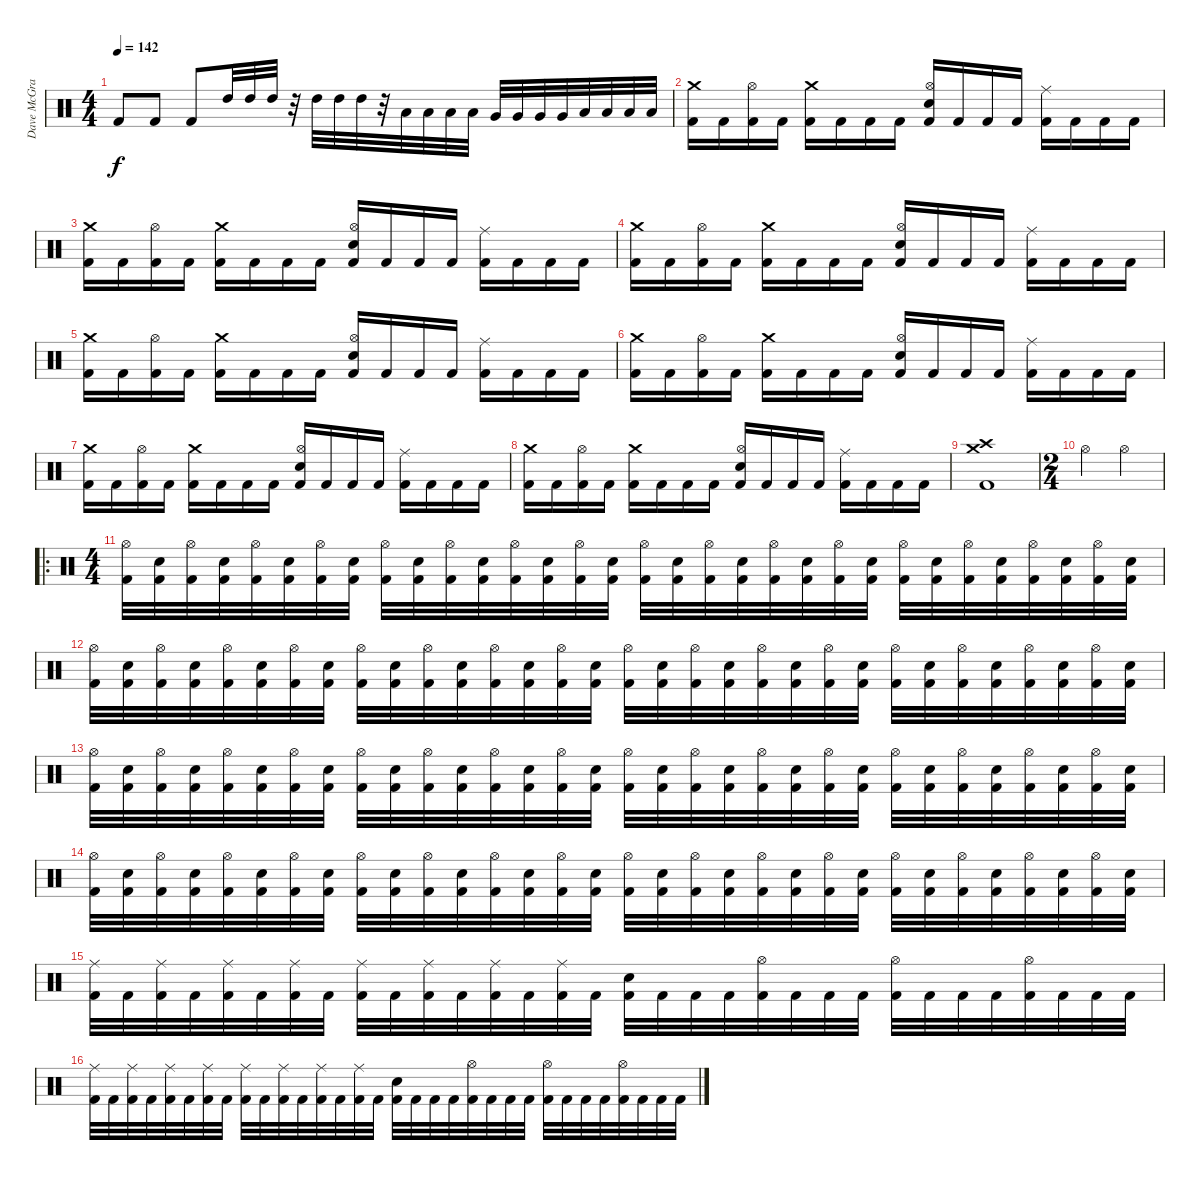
\track ("Dave McGraw" "Dave McGra") {instrument percussion}
\staff {score}
\articulation defaults
\ts (4 4)
\tempo 142
\clef neutral
\ks c "Kick (hit) 2".8{dy f} "Kick (hit) 2".8 "Kick (hit) 2".8 "High Tom (hit)".32 "High Tom (hit)".32 "High Tom (hit)".32
r.32 "High Tom (hit)".32 "High Tom (hit)".32 "High Tom (hit)".32 r.32 "Low Tom (hit)".32 "Low Tom (hit)".32 "Low Tom (hit)".32 "Low Tom (hit)".32 "Very Low Tom (hit)".32 "Very Low Tom (hit)".32 "Very Low Tom (hit)".32 "Very Low Tom (hit)".32 "Low Floor Tom (hit)".32 "Low Floor Tom (hit)".32 "Low Floor Tom (hit)".32 "Low Floor Tom (hit)".32 |
("Crash medium (hit)" "Kick (hit) 2").16 "Kick (hit) 2".16 ("Hi-Hat (open)" "Kick (hit) 2").16 "Kick (hit) 2".16 ("Crash medium (hit)" "Kick (hit) 2").16 "Kick (hit) 2".16 "Kick (hit) 2".16 "Kick (hit) 2".16 ("Hi-Hat (open)" "Electric Snare (hit)" "Kick (hit) 2").16 "Kick (hit) 2".16 "Kick (hit) 2".16 "Kick (hit) 2".16 ("Ride (middle)" "Kick (hit) 2").16 "Kick (hit) 2".16 "Kick (hit) 2".16 "Kick (hit) 2".16 |
("Crash medium (hit)" "Kick (hit) 2").16 "Kick (hit) 2".16 ("Hi-Hat (open)" "Kick (hit) 2").16 "Kick (hit) 2".16 ("Crash medium (hit)" "Kick (hit) 2").16 "Kick (hit) 2".16 "Kick (hit) 2".16 "Kick (hit) 2".16 ("Hi-Hat (open)" "Electric Snare (hit)" "Kick (hit) 2").16 "Kick (hit) 2".16 "Kick (hit) 2".16 "Kick (hit) 2".16 ("Ride (middle)" "Kick (hit) 2").16 "Kick (hit) 2".16 "Kick (hit) 2".16 "Kick (hit) 2".16 |
("Crash medium (hit)" "Kick (hit) 2").16 "Kick (hit) 2".16 ("Hi-Hat (open)" "Kick (hit) 2").16 "Kick (hit) 2".16 ("Crash medium (hit)" "Kick (hit) 2").16 "Kick (hit) 2".16 "Kick (hit) 2".16 "Kick (hit) 2".16 ("Hi-Hat (open)" "Electric Snare (hit)" "Kick (hit) 2").16 "Kick (hit) 2".16 "Kick (hit) 2".16 "Kick (hit) 2".16 ("Ride (middle)" "Kick (hit) 2").16 "Kick (hit) 2".16 "Kick (hit) 2".16 "Kick (hit) 2".16 |
("Crash medium (hit)" "Kick (hit) 2").16 "Kick (hit) 2".16 ("Hi-Hat (open)" "Kick (hit) 2").16 "Kick (hit) 2".16 ("Crash medium (hit)" "Kick (hit) 2").16 "Kick (hit) 2".16 "Kick (hit) 2".16 "Kick (hit) 2".16 ("Hi-Hat (open)" "Electric Snare (hit)" "Kick (hit) 2").16 "Kick (hit) 2".16 "Kick (hit) 2".16 "Kick (hit) 2".16 ("Ride (middle)" "Kick (hit) 2").16 "Kick (hit) 2".16 "Kick (hit) 2".16 "Kick (hit) 2".16 |
("Crash medium (hit)" "Kick (hit) 2").16 "Kick (hit) 2".16 ("Hi-Hat (open)" "Kick (hit) 2").16 "Kick (hit) 2".16 ("Crash medium (hit)" "Kick (hit) 2").16 "Kick (hit) 2".16 "Kick (hit) 2".16 "Kick (hit) 2".16 ("Hi-Hat (open)" "Electric Snare (hit)" "Kick (hit) 2").16 "Kick (hit) 2".16 "Kick (hit) 2".16 "Kick (hit) 2".16 ("Ride (middle)" "Kick (hit) 2").16 "Kick (hit) 2".16 "Kick (hit) 2".16 "Kick (hit) 2".16 |
("Crash medium (hit)" "Kick (hit) 2").16 "Kick (hit) 2".16 ("Hi-Hat (open)" "Kick (hit) 2").16 "Kick (hit) 2".16 ("Crash medium (hit)" "Kick (hit) 2").16 "Kick (hit) 2".16 "Kick (hit) 2".16 "Kick (hit) 2".16 ("Hi-Hat (open)" "Electric Snare (hit)" "Kick (hit) 2").16 "Kick (hit) 2".16 "Kick (hit) 2".16 "Kick (hit) 2".16 ("Ride (middle)" "Kick (hit) 2").16 "Kick (hit) 2".16 "Kick (hit) 2".16 "Kick (hit) 2".16 |
("Crash medium (hit)" "Kick (hit) 2").16 "Kick (hit) 2".16 ("Hi-Hat (open)" "Kick (hit) 2").16 "Kick (hit) 2".16 ("Crash medium (hit)" "Kick (hit) 2").16 "Kick (hit) 2".16 "Kick (hit) 2".16 "Kick (hit) 2".16 ("Hi-Hat (open)" "Electric Snare (hit)" "Kick (hit) 2").16 "Kick (hit) 2".16 "Kick (hit) 2".16 "Kick (hit) 2".16 ("Ride (middle)" "Kick (hit) 2").16 "Kick (hit) 2".16 "Kick (hit) 2".16 "Kick (hit) 2".16 |
("Crash medium (hit)" "Crash high (hit)" "Kick (hit) 2").1 |
\ts (2 4)
"Hi-Hat (open)".4 "Hi-Hat (open)".4 |
\ro
\ts (4 4)
("Hi-Hat (open)" "Kick (hit) 2").32 ("Electric Snare (hit)" "Kick (hit) 2").32 ("Hi-Hat (open)" "Kick (hit) 2").32 ("Electric Snare (hit)" "Kick (hit) 2").32 ("Hi-Hat (open)" "Kick (hit) 2").32 ("Electric Snare (hit)" "Kick (hit) 2").32 ("Hi-Hat (open)" "Kick (hit) 2").32 ("Electric Snare (hit)" "Kick (hit) 2").32 ("Hi-Hat (open)" "Kick (hit) 2").32 ("Electric Snare (hit)" "Kick (hit) 2").32 ("Hi-Hat (open)" "Kick (hit) 2").32 ("Electric Snare (hit)" "Kick (hit) 2").32 ("Hi-Hat (open)" "Kick (hit) 2").32 ("Electric Snare (hit)" "Kick (hit) 2").32 ("Hi-Hat (open)" "Kick (hit) 2").32 ("Electric Snare (hit)" "Kick (hit) 2").32 ("Hi-Hat (open)" "Kick (hit) 2").32 ("Electric Snare (hit)" "Kick (hit) 2").32 ("Hi-Hat (open)" "Kick (hit) 2").32 ("Electric Snare (hit)" "Kick (hit) 2").32 ("Hi-Hat (open)" "Kick (hit) 2").32 ("Electric Snare (hit)" "Kick (hit) 2").32 ("Hi-Hat (open)" "Kick (hit) 2").32 ("Electric Snare (hit)" "Kick (hit) 2").32 ("Hi-Hat (open)" "Kick (hit) 2").32 ("Electric Snare (hit)" "Kick (hit) 2").32 ("Hi-Hat (open)" "Kick (hit) 2").32 ("Electric Snare (hit)" "Kick (hit) 2").32 ("Hi-Hat (open)" "Kick (hit) 2").32 ("Electric Snare (hit)" "Kick (hit) 2").32 ("Hi-Hat (open)" "Kick (hit) 2").32 ("Electric Snare (hit)" "Kick (hit) 2").32 |
("Hi-Hat (open)" "Kick (hit) 2").32 ("Electric Snare (hit)" "Kick (hit) 2").32 ("Hi-Hat (open)" "Kick (hit) 2").32 ("Electric Snare (hit)" "Kick (hit) 2").32 ("Hi-Hat (open)" "Kick (hit) 2").32 ("Electric Snare (hit)" "Kick (hit) 2").32 ("Hi-Hat (open)" "Kick (hit) 2").32 ("Electric Snare (hit)" "Kick (hit) 2").32 ("Hi-Hat (open)" "Kick (hit) 2").32 ("Electric Snare (hit)" "Kick (hit) 2").32 ("Hi-Hat (open)" "Kick (hit) 2").32 ("Electric Snare (hit)" "Kick (hit) 2").32 ("Hi-Hat (open)" "Kick (hit) 2").32 ("Electric Snare (hit)" "Kick (hit) 2").32 ("Hi-Hat (open)" "Kick (hit) 2").32 ("Electric Snare (hit)" "Kick (hit) 2").32 ("Hi-Hat (open)" "Kick (hit) 2").32 ("Electric Snare (hit)" "Kick (hit) 2").32 ("Hi-Hat (open)" "Kick (hit) 2").32 ("Electric Snare (hit)" "Kick (hit) 2").32 ("Hi-Hat (open)" "Kick (hit) 2").32 ("Electric Snare (hit)" "Kick (hit) 2").32 ("Hi-Hat (open)" "Kick (hit) 2").32 ("Electric Snare (hit)" "Kick (hit) 2").32 ("Hi-Hat (open)" "Kick (hit) 2").32 ("Electric Snare (hit)" "Kick (hit) 2").32 ("Hi-Hat (open)" "Kick (hit) 2").32 ("Electric Snare (hit)" "Kick (hit) 2").32 ("Hi-Hat (open)" "Kick (hit) 2").32 ("Electric Snare (hit)" "Kick (hit) 2").32 ("Hi-Hat (open)" "Kick (hit) 2").32 ("Electric Snare (hit)" "Kick (hit) 2").32 |
("Hi-Hat (open)" "Kick (hit) 2").32 ("Electric Snare (hit)" "Kick (hit) 2").32 ("Hi-Hat (open)" "Kick (hit) 2").32 ("Electric Snare (hit)" "Kick (hit) 2").32 ("Hi-Hat (open)" "Kick (hit) 2").32 ("Electric Snare (hit)" "Kick (hit) 2").32 ("Hi-Hat (open)" "Kick (hit) 2").32 ("Electric Snare (hit)" "Kick (hit) 2").32 ("Hi-Hat (open)" "Kick (hit) 2").32 ("Electric Snare (hit)" "Kick (hit) 2").32 ("Hi-Hat (open)" "Kick (hit) 2").32 ("Electric Snare (hit)" "Kick (hit) 2").32 ("Hi-Hat (open)" "Kick (hit) 2").32 ("Electric Snare (hit)" "Kick (hit) 2").32 ("Hi-Hat (open)" "Kick (hit) 2").32 ("Electric Snare (hit)" "Kick (hit) 2").32 ("Hi-Hat (open)" "Kick (hit) 2").32 ("Electric Snare (hit)" "Kick (hit) 2").32 ("Hi-Hat (open)" "Kick (hit) 2").32 ("Electric Snare (hit)" "Kick (hit) 2").32 ("Hi-Hat (open)" "Kick (hit) 2").32 ("Electric Snare (hit)" "Kick (hit) 2").32 ("Hi-Hat (open)" "Kick (hit) 2").32 ("Electric Snare (hit)" "Kick (hit) 2").32 ("Hi-Hat (open)" "Kick (hit) 2").32 ("Electric Snare (hit)" "Kick (hit) 2").32 ("Hi-Hat (open)" "Kick (hit) 2").32 ("Electric Snare (hit)" "Kick (hit) 2").32 ("Hi-Hat (open)" "Kick (hit) 2").32 ("Electric Snare (hit)" "Kick (hit) 2").32 ("Hi-Hat (open)" "Kick (hit) 2").32 ("Electric Snare (hit)" "Kick (hit) 2").32 |
("Hi-Hat (open)" "Kick (hit) 2").32 ("Electric Snare (hit)" "Kick (hit) 2").32 ("Hi-Hat (open)" "Kick (hit) 2").32 ("Electric Snare (hit)" "Kick (hit) 2").32 ("Hi-Hat (open)" "Kick (hit) 2").32 ("Electric Snare (hit)" "Kick (hit) 2").32 ("Hi-Hat (open)" "Kick (hit) 2").32 ("Electric Snare (hit)" "Kick (hit) 2").32 ("Hi-Hat (open)" "Kick (hit) 2").32 ("Electric Snare (hit)" "Kick (hit) 2").32 ("Hi-Hat (open)" "Kick (hit) 2").32 ("Electric Snare (hit)" "Kick (hit) 2").32 ("Hi-Hat (open)" "Kick (hit) 2").32 ("Electric Snare (hit)" "Kick (hit) 2").32 ("Hi-Hat (open)" "Kick (hit) 2").32 ("Electric Snare (hit)" "Kick (hit) 2").32 ("Hi-Hat (open)" "Kick (hit) 2").32 ("Electric Snare (hit)" "Kick (hit) 2").32 ("Hi-Hat (open)" "Kick (hit) 2").32 ("Electric Snare (hit)" "Kick (hit) 2").32 ("Hi-Hat (open)" "Kick (hit) 2").32 ("Electric Snare (hit)" "Kick (hit) 2").32 ("Hi-Hat (open)" "Kick (hit) 2").32 ("Electric Snare (hit)" "Kick (hit) 2").32 ("Hi-Hat (open)" "Kick (hit) 2").32 ("Electric Snare (hit)" "Kick (hit) 2").32 ("Hi-Hat (open)" "Kick (hit) 2").32 ("Electric Snare (hit)" "Kick (hit) 2").32 ("Hi-Hat (open)" "Kick (hit) 2").32 ("Electric Snare (hit)" "Kick (hit) 2").32 ("Hi-Hat (open)" "Kick (hit) 2").32 ("Electric Snare (hit)" "Kick (hit) 2").32 |
("Ride (middle)" "Kick (hit) 2").32 "Kick (hit) 2".32 ("Ride (middle)" "Kick (hit) 2").32 "Kick (hit) 2".32 ("Ride (middle)" "Kick (hit) 2").32 "Kick (hit) 2".32 ("Ride (middle)" "Kick (hit) 2").32 "Kick (hit) 2".32 ("Ride (middle)" "Kick (hit) 2").32 "Kick (hit) 2".32 ("Ride (middle)" "Kick (hit) 2").32 "Kick (hit) 2".32 ("Ride (middle)" "Kick (hit) 2").32 "Kick (hit) 2".32 ("Ride (middle)" "Kick (hit) 2").32 "Kick (hit) 2".32 ("Electric Snare (hit)" "Kick (hit) 2").32 "Kick (hit) 2".32 "Kick (hit) 2".32 "Kick (hit) 2".32 ("Hi-Hat (open)" "Kick (hit) 2").32 "Kick (hit) 2".32 "Kick (hit) 2".32 "Kick (hit) 2".32 ("Hi-Hat (open)" "Kick (hit) 2").32 "Kick (hit) 2".32 "Kick (hit) 2".32 "Kick (hit) 2".32 ("Hi-Hat (open)" "Kick (hit) 2").32 "Kick (hit) 2".32 "Kick (hit) 2".32 "Kick (hit) 2".32 |
("Ride (middle)" "Kick (hit) 2").32 "Kick (hit) 2".32 ("Ride (middle)" "Kick (hit) 2").32 "Kick (hit) 2".32 ("Ride (middle)" "Kick (hit) 2").32 "Kick (hit) 2".32 ("Ride (middle)" "Kick (hit) 2").32 "Kick (hit) 2".32 ("Ride (middle)" "Kick (hit) 2").32 "Kick (hit) 2".32 ("Ride (middle)" "Kick (hit) 2").32 "Kick (hit) 2".32 ("Ride (middle)" "Kick (hit) 2").32 "Kick (hit) 2".32 ("Ride (middle)" "Kick (hit) 2").32 "Kick (hit) 2".32 ("Electric Snare (hit)" "Kick (hit) 2").32 "Kick (hit) 2".32 "Kick (hit) 2".32 "Kick (hit) 2".32 ("Hi-Hat (open)" "Kick (hit) 2").32 "Kick (hit) 2".32 "Kick (hit) 2".32 "Kick (hit) 2".32 ("Hi-Hat (open)" "Kick (hit) 2").32 "Kick (hit) 2".32 "Kick (hit) 2".32 "Kick (hit) 2".32 ("Hi-Hat (open)" "Kick (hit) 2").32 "Kick (hit) 2".32 "Kick (hit) 2".32 "Kick (hit) 2".32
